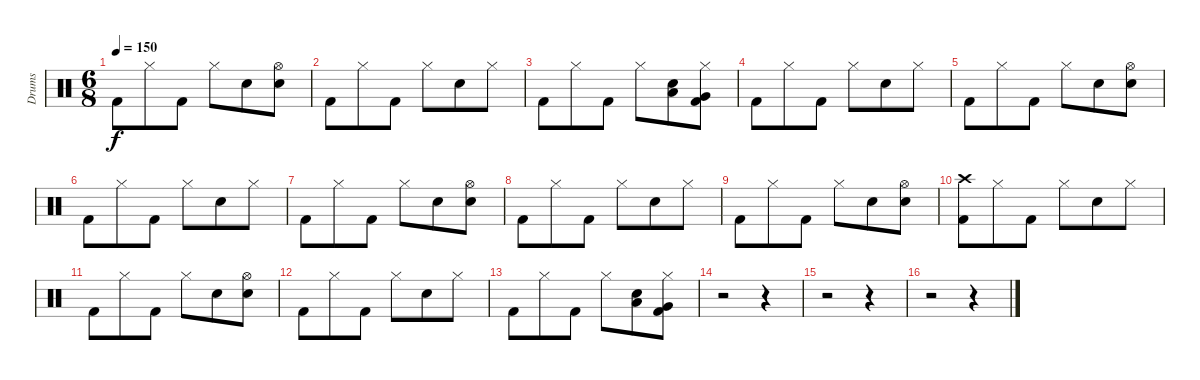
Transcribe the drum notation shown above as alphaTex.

\track ("Drums" "Drums") {mute instrument percussion}
\staff {score}
\articulation defaults
\ts (6 8)
\tempo 150
\clef neutral
\ks c "Kick (hit) 2".8{dy f} "Hi-Hat (closed)".8 "Kick (hit) 2".8 "Hi-Hat (closed)".8 "Electric Snare (hit)".8
("Hi-Hat (open)" "Electric Snare (hit)").8 |
"Kick (hit) 2".8 "Hi-Hat (closed)".8 "Kick (hit) 2".8 "Hi-Hat (closed)".8 "Electric Snare (hit)".8 "Hi-Hat (closed)".8 |
"Kick (hit) 2".8 "Hi-Hat (closed)".8 "Kick (hit) 2".8 "Hi-Hat (closed)".8 ("Low Tom (hit)" "Electric Snare (hit)").8 ("Very Low Tom (hit)" "Hi-Hat (closed)" "Kick (hit) 2").8 |
"Kick (hit) 2".8 "Hi-Hat (closed)".8 "Kick (hit) 2".8 "Hi-Hat (closed)".8 "Electric Snare (hit)".8 "Hi-Hat (closed)".8 |
"Kick (hit) 2".8 "Hi-Hat (closed)".8 "Kick (hit) 2".8 "Hi-Hat (closed)".8 "Electric Snare (hit)".8 ("Hi-Hat (open)" "Electric Snare (hit)").8 |
"Kick (hit) 2".8 "Hi-Hat (closed)".8 "Kick (hit) 2".8 "Hi-Hat (closed)".8 "Electric Snare (hit)".8 "Hi-Hat (closed)".8 |
"Kick (hit) 2".8 "Hi-Hat (closed)".8 "Kick (hit) 2".8 "Hi-Hat (closed)".8 "Electric Snare (hit)".8 ("Hi-Hat (open)" "Electric Snare (hit)").8 |
"Kick (hit) 2".8 "Hi-Hat (closed)".8 "Kick (hit) 2".8 "Hi-Hat (closed)".8 "Electric Snare (hit)".8 "Hi-Hat (closed)".8 |
"Kick (hit) 2".8 "Hi-Hat (closed)".8 "Kick (hit) 2".8 "Hi-Hat (closed)".8 "Electric Snare (hit)".8 ("Hi-Hat (open)" "Electric Snare (hit)").8 |
("Crash high (hit)" "Kick (hit) 2").8 "Hi-Hat (closed)".8 "Kick (hit) 2".8 "Hi-Hat (closed)".8 "Electric Snare (hit)".8 "Hi-Hat (closed)".8 |
"Kick (hit) 2".8 "Hi-Hat (closed)".8 "Kick (hit) 2".8 "Hi-Hat (closed)".8 "Electric Snare (hit)".8 ("Hi-Hat (open)" "Electric Snare (hit)").8 |
"Kick (hit) 2".8 "Hi-Hat (closed)".8 "Kick (hit) 2".8 "Hi-Hat (closed)".8 "Electric Snare (hit)".8 "Hi-Hat (closed)".8 |
"Kick (hit) 2".8 "Hi-Hat (closed)".8 "Kick (hit) 2".8 "Hi-Hat (closed)".8 ("Low Tom (hit)" "Electric Snare (hit)").8 ("Very Low Tom (hit)" "Hi-Hat (closed)" "Kick (hit) 2").8 |
r.2 r.4 |
r.2 r.4 |
r.2 r.4
